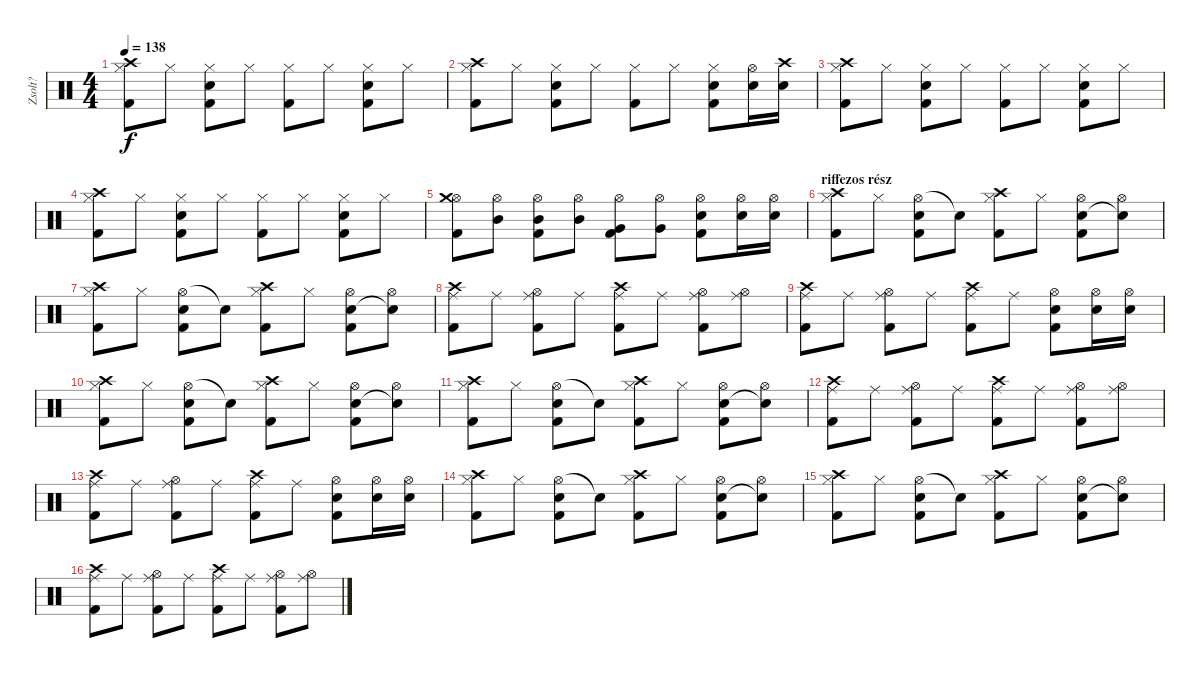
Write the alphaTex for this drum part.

\track ("Zsolt?" "Zsolt?") {instrument percussion}
\staff {score}
\articulation defaults
\ts (4 4)
\tempo 138
\clef neutral
\ks c
("Hi-Hat (closed)" "Crash high (hit)" "Kick (hit) 2").8{dy f} "Hi-Hat (closed)".8 ("Hi-Hat (closed)" "Snare (hit) 2" "Kick (hit) 2").8 "Hi-Hat (closed)".8 ("Hi-Hat (closed)" "Kick (hit) 2").8 "Hi-Hat (closed)".8 ("Hi-Hat (closed)" "Snare (hit) 2" "Kick (hit) 2").8 "Hi-Hat (closed)".8 |
("Hi-Hat (closed)" "Crash high (hit)" "Kick (hit) 2").8 "Hi-Hat (closed)".8 ("Hi-Hat (closed)" "Snare (hit) 2" "Kick (hit) 2").8 "Hi-Hat (closed)".8 ("Hi-Hat (closed)" "Kick (hit) 2").8 "Hi-Hat (closed)".8 ("Hi-Hat (closed)" "Snare (hit) 2" "Kick (hit) 2").8 ("Hi-Hat (open)" "Snare (hit) 2").16 ("Crash high (hit)" "Snare (hit) 2").16 |
("Hi-Hat (closed)" "Crash high (hit)" "Kick (hit) 2").8 "Hi-Hat (closed)".8 ("Hi-Hat (closed)" "Snare (hit) 2" "Kick (hit) 2").8 "Hi-Hat (closed)".8 ("Hi-Hat (closed)" "Kick (hit) 2").8 "Hi-Hat (closed)".8 ("Hi-Hat (closed)" "Snare (hit) 2" "Kick (hit) 2").8 "Hi-Hat (closed)".8 |
("Hi-Hat (closed)" "Crash high (hit)" "Kick (hit) 2").8 "Hi-Hat (closed)".8 ("Hi-Hat (closed)" "Snare (hit) 2" "Kick (hit) 2").8 "Hi-Hat (closed)".8 ("Hi-Hat (closed)" "Kick (hit) 2").8 "Hi-Hat (closed)".8 ("Hi-Hat (closed)" "Snare (hit) 2" "Kick (hit) 2").8 "Hi-Hat (closed)".8 |
("Hi-Hat (open)" "Crash medium (hit)" "Kick (hit) 2").8 ("Hi-Hat (open)" "Mid Tom (hit)").8 ("Hi-Hat (open)" "Mid Tom (hit)" "Kick (hit) 2").8 ("Hi-Hat (open)" "Mid Tom (hit)").8 ("Hi-Hat (open)" "Very Low Tom (hit)" "Kick (hit) 2").8 ("Hi-Hat (open)" "Very Low Tom (hit)").8 ("Hi-Hat (open)" "Snare (hit) 2" "Kick (hit) 2").8 ("Hi-Hat (open)" "Snare (hit) 2").16 ("Hi-Hat (open)" "Snare (hit) 2").16 |
\section ("" "riffezos rész")
("Crash high (hit)" "Hi-Hat (closed)" "Kick (hit) 2").8 "Hi-Hat (closed)".8 ("Hi-Hat (open)" "Snare (hit) 2" "Kick (hit) 2").8 "Snare (hit) 2"{t}.8 ("Crash high (hit)" "Hi-Hat (closed)" "Kick (hit) 2").8 "Hi-Hat (closed)".8 ("Hi-Hat (open)" "Snare (hit) 2" "Kick (hit) 2").8 ("Hi-Hat (open)" "Snare (hit) 2"{t}).8 |
("Crash high (hit)" "Hi-Hat (closed)" "Kick (hit) 2").8 "Hi-Hat (closed)".8 ("Hi-Hat (open)" "Snare (hit) 2" "Kick (hit) 2").8 "Snare (hit) 2"{t}.8 ("Crash high (hit)" "Hi-Hat (closed)" "Kick (hit) 2").8 "Hi-Hat (closed)".8 ("Hi-Hat (open)" "Snare (hit) 2" "Kick (hit) 2").8 ("Hi-Hat (open)" "Snare (hit) 2"{t}).8 |
("Crash high (hit)" "Ride (middle)" "Kick (hit) 2").8 "Ride (middle)".8 ("Hi-Hat (open)" "Ride (middle)" "Kick (hit) 2").8 "Ride (middle)".8 ("Crash high (hit)" "Ride (middle)" "Kick (hit) 2").8 "Ride (middle)".8 ("Hi-Hat (open)" "Ride (middle)" "Kick (hit) 2").8 ("Hi-Hat (open)" "Ride (middle)").8 |
("Crash high (hit)" "Ride (middle)" "Kick (hit) 2").8 "Ride (middle)".8 ("Hi-Hat (open)" "Ride (middle)" "Kick (hit) 2").8 "Ride (middle)".8 ("Crash high (hit)" "Ride (middle)" "Kick (hit) 2").8 "Ride (middle)".8 ("Hi-Hat (open)" "Snare (hit) 2" "Kick (hit) 2").8 ("Hi-Hat (open)" "Snare (hit) 2").16 ("Hi-Hat (open)" "Snare (hit) 2").16 |
("Crash high (hit)" "Hi-Hat (closed)" "Kick (hit) 2").8 "Hi-Hat (closed)".8 ("Hi-Hat (open)" "Snare (hit) 2" "Kick (hit) 2").8 "Snare (hit) 2"{t}.8 ("Crash high (hit)" "Hi-Hat (closed)" "Kick (hit) 2").8 "Hi-Hat (closed)".8 ("Hi-Hat (open)" "Snare (hit) 2" "Kick (hit) 2").8 ("Hi-Hat (open)" "Snare (hit) 2"{t}).8 |
("Crash high (hit)" "Hi-Hat (closed)" "Kick (hit) 2").8 "Hi-Hat (closed)".8 ("Hi-Hat (open)" "Snare (hit) 2" "Kick (hit) 2").8 "Snare (hit) 2"{t}.8 ("Crash high (hit)" "Hi-Hat (closed)" "Kick (hit) 2").8 "Hi-Hat (closed)".8 ("Hi-Hat (open)" "Snare (hit) 2" "Kick (hit) 2").8 ("Hi-Hat (open)" "Snare (hit) 2"{t}).8 |
("Crash high (hit)" "Ride (middle)" "Kick (hit) 2").8 "Ride (middle)".8 ("Hi-Hat (open)" "Ride (middle)" "Kick (hit) 2").8 "Ride (middle)".8 ("Crash high (hit)" "Ride (middle)" "Kick (hit) 2").8 "Ride (middle)".8 ("Hi-Hat (open)" "Ride (middle)" "Kick (hit) 2").8 ("Hi-Hat (open)" "Ride (middle)").8 |
("Crash high (hit)" "Ride (middle)" "Kick (hit) 2").8 "Ride (middle)".8 ("Hi-Hat (open)" "Ride (middle)" "Kick (hit) 2").8 "Ride (middle)".8 ("Crash high (hit)" "Ride (middle)" "Kick (hit) 2").8 "Ride (middle)".8 ("Hi-Hat (open)" "Snare (hit) 2" "Kick (hit) 2").8 ("Hi-Hat (open)" "Snare (hit) 2").16 ("Hi-Hat (open)" "Snare (hit) 2").16 |
("Crash high (hit)" "Hi-Hat (closed)" "Kick (hit) 2").8 "Hi-Hat (closed)".8 ("Hi-Hat (open)" "Snare (hit) 2" "Kick (hit) 2").8 "Snare (hit) 2"{t}.8 ("Crash high (hit)" "Hi-Hat (closed)" "Kick (hit) 2").8 "Hi-Hat (closed)".8 ("Hi-Hat (open)" "Snare (hit) 2" "Kick (hit) 2").8 ("Hi-Hat (open)" "Snare (hit) 2"{t}).8 |
("Crash high (hit)" "Hi-Hat (closed)" "Kick (hit) 2").8 "Hi-Hat (closed)".8 ("Hi-Hat (open)" "Snare (hit) 2" "Kick (hit) 2").8 "Snare (hit) 2"{t}.8 ("Crash high (hit)" "Hi-Hat (closed)" "Kick (hit) 2").8 "Hi-Hat (closed)".8 ("Hi-Hat (open)" "Snare (hit) 2" "Kick (hit) 2").8 ("Hi-Hat (open)" "Snare (hit) 2"{t}).8 |
("Crash high (hit)" "Ride (middle)" "Kick (hit) 2").8 "Ride (middle)".8 ("Hi-Hat (open)" "Ride (middle)" "Kick (hit) 2").8 "Ride (middle)".8 ("Crash high (hit)" "Ride (middle)" "Kick (hit) 2").8 "Ride (middle)".8 ("Hi-Hat (open)" "Ride (middle)" "Kick (hit) 2").8 ("Hi-Hat (open)" "Ride (middle)").8
